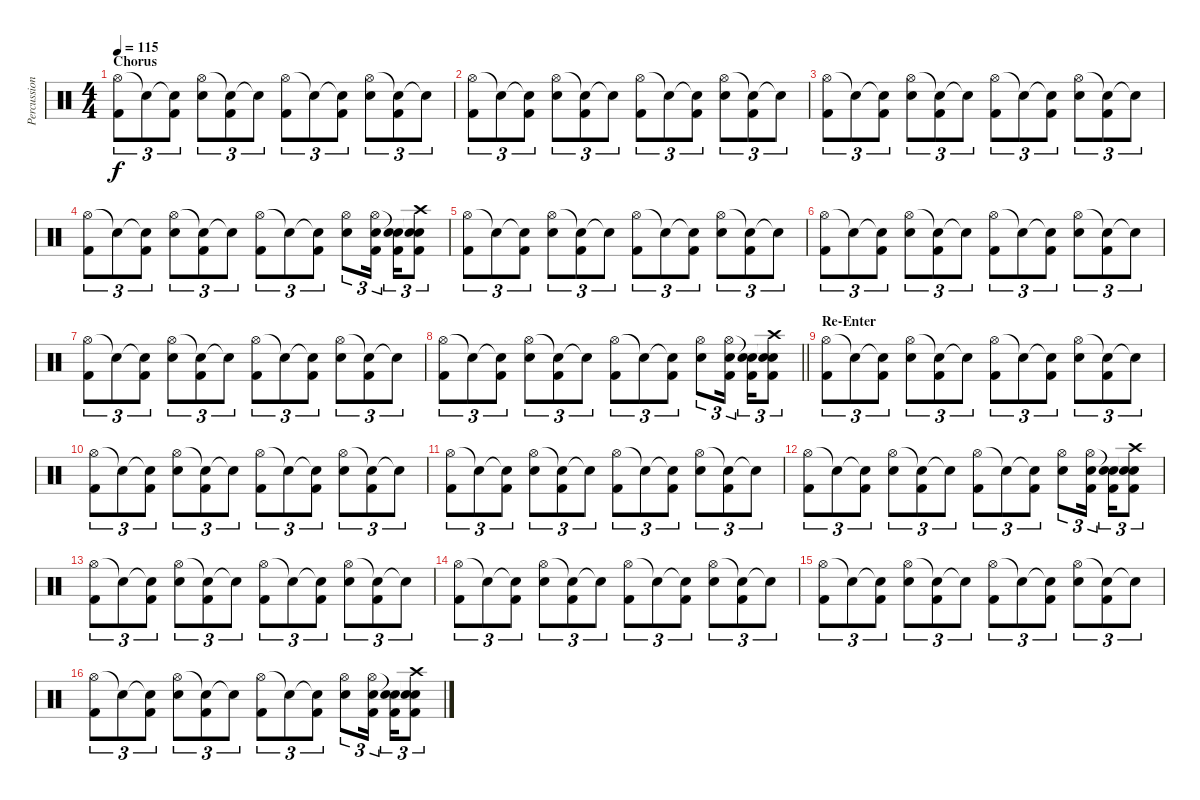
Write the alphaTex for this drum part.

\track ("Percussion" "Percussion") {instrument percussion}
\staff {score}
\articulation defaults
\ts (4 4)
\section ("" "Chorus")
\tempo 115
\clef neutral
\ks c
("Hi-Hat (open)" "Kick (hit) 2").8{tu (3 2) dy f} "Snare (hit)"{t}.8{tu (3 2)} ("Snare (hit)"{t} "Kick (hit) 2").8{tu (3 2)} ("Hi-Hat (open)" "Electric Snare (hit)").8{tu (3 2)} ("Snare (hit)"{t} "Kick (hit) 2").8{tu (3 2)} "Snare (hit)"{t}.8{tu (3 2)} ("Hi-Hat (open)" "Kick (hit) 2").8{tu (3 2)} "Snare (hit)"{t}.8{tu (3 2)} ("Snare (hit)"{t} "Kick (hit) 2").8{tu (3 2)} ("Hi-Hat (open)" "Electric Snare (hit)").8{tu (3 2)} ("Snare (hit)"{t} "Kick (hit) 2").8{tu (3 2)} "Snare (hit)"{t}.8{tu (3 2)} |
("Hi-Hat (open)" "Kick (hit) 2").8{tu (3 2)} "Snare (hit)"{t}.8{tu (3 2)} ("Snare (hit)"{t} "Kick (hit) 2").8{tu (3 2)} ("Hi-Hat (open)" "Electric Snare (hit)").8{tu (3 2)} ("Snare (hit)"{t} "Kick (hit) 2").8{tu (3 2)} "Snare (hit)"{t}.8{tu (3 2)} ("Hi-Hat (open)" "Kick (hit) 2").8{tu (3 2)} "Snare (hit)"{t}.8{tu (3 2)} ("Snare (hit)"{t} "Kick (hit) 2").8{tu (3 2)} ("Hi-Hat (open)" "Electric Snare (hit)").8{tu (3 2)} ("Snare (hit)"{t} "Kick (hit) 2").8{tu (3 2)} "Snare (hit)"{t}.8{tu (3 2)} |
("Hi-Hat (open)" "Kick (hit) 2").8{tu (3 2)} "Snare (hit)"{t}.8{tu (3 2)} ("Snare (hit)"{t} "Kick (hit) 2").8{tu (3 2)} ("Hi-Hat (open)" "Electric Snare (hit)").8{tu (3 2)} ("Snare (hit)"{t} "Kick (hit) 2").8{tu (3 2)} "Snare (hit)"{t}.8{tu (3 2)} ("Hi-Hat (open)" "Kick (hit) 2").8{tu (3 2)} "Snare (hit)"{t}.8{tu (3 2)} ("Snare (hit)"{t} "Kick (hit) 2").8{tu (3 2)} ("Hi-Hat (open)" "Electric Snare (hit)").8{tu (3 2)} ("Snare (hit)"{t} "Kick (hit) 2").8{tu (3 2)} "Snare (hit)"{t}.8{tu (3 2)} |
("Hi-Hat (open)" "Kick (hit) 2").8{tu (3 2)} "Snare (hit)"{t}.8{tu (3 2)} ("Snare (hit)"{t} "Kick (hit) 2").8{tu (3 2)} ("Hi-Hat (open)" "Electric Snare (hit)").8{tu (3 2)} ("Snare (hit)"{t} "Kick (hit) 2").8{tu (3 2)} "Snare (hit)"{t}.8{tu (3 2)} ("Hi-Hat (open)" "Kick (hit) 2").8{tu (3 2)} "Snare (hit)"{t}.8{tu (3 2)} ("Snare (hit)"{t} "Kick (hit) 2").8{tu (3 2)} ("Hi-Hat (open)" "Electric Snare (hit)").8{tu (3 2)} ("Hi-Hat (open)" "Electric Snare (hit)" "Kick (hit) 2").16{tu (3 2) beam splitsecondary} ("Snare (hit)"{t} "Electric Snare (hit)" "Kick (hit) 2").16{tu (3 2)} ("Snare (hit)"{t} "Crash high (hit)" "Electric Snare (hit)" "Kick (hit) 2").8{tu (3 2)} |
("Hi-Hat (open)" "Kick (hit) 2").8{tu (3 2)} "Snare (hit)"{t}.8{tu (3 2)} ("Snare (hit)"{t} "Kick (hit) 2").8{tu (3 2)} ("Hi-Hat (open)" "Electric Snare (hit)").8{tu (3 2)} ("Snare (hit)"{t} "Kick (hit) 2").8{tu (3 2)} "Snare (hit)"{t}.8{tu (3 2)} ("Hi-Hat (open)" "Kick (hit) 2").8{tu (3 2)} "Snare (hit)"{t}.8{tu (3 2)} ("Snare (hit)"{t} "Kick (hit) 2").8{tu (3 2)} ("Hi-Hat (open)" "Electric Snare (hit)").8{tu (3 2)} ("Snare (hit)"{t} "Kick (hit) 2").8{tu (3 2)} "Snare (hit)"{t}.8{tu (3 2)} |
("Hi-Hat (open)" "Kick (hit) 2").8{tu (3 2)} "Snare (hit)"{t}.8{tu (3 2)} ("Snare (hit)"{t} "Kick (hit) 2").8{tu (3 2)} ("Hi-Hat (open)" "Electric Snare (hit)").8{tu (3 2)} ("Snare (hit)"{t} "Kick (hit) 2").8{tu (3 2)} "Snare (hit)"{t}.8{tu (3 2)} ("Hi-Hat (open)" "Kick (hit) 2").8{tu (3 2)} "Snare (hit)"{t}.8{tu (3 2)} ("Snare (hit)"{t} "Kick (hit) 2").8{tu (3 2)} ("Hi-Hat (open)" "Electric Snare (hit)").8{tu (3 2)} ("Snare (hit)"{t} "Kick (hit) 2").8{tu (3 2)} "Snare (hit)"{t}.8{tu (3 2)} |
("Hi-Hat (open)" "Kick (hit) 2").8{tu (3 2)} "Snare (hit)"{t}.8{tu (3 2)} ("Snare (hit)"{t} "Kick (hit) 2").8{tu (3 2)} ("Hi-Hat (open)" "Electric Snare (hit)").8{tu (3 2)} ("Snare (hit)"{t} "Kick (hit) 2").8{tu (3 2)} "Snare (hit)"{t}.8{tu (3 2)} ("Hi-Hat (open)" "Kick (hit) 2").8{tu (3 2)} "Snare (hit)"{t}.8{tu (3 2)} ("Snare (hit)"{t} "Kick (hit) 2").8{tu (3 2)} ("Hi-Hat (open)" "Electric Snare (hit)").8{tu (3 2)} ("Snare (hit)"{t} "Kick (hit) 2").8{tu (3 2)} "Snare (hit)"{t}.8{tu (3 2)} |
\barLineRight lightlight
("Hi-Hat (open)" "Kick (hit) 2").8{tu (3 2)} "Snare (hit)"{t}.8{tu (3 2)} ("Snare (hit)"{t} "Kick (hit) 2").8{tu (3 2)} ("Hi-Hat (open)" "Electric Snare (hit)").8{tu (3 2)} ("Snare (hit)"{t} "Kick (hit) 2").8{tu (3 2)} "Snare (hit)"{t}.8{tu (3 2)} ("Hi-Hat (open)" "Kick (hit) 2").8{tu (3 2)} "Snare (hit)"{t}.8{tu (3 2)} ("Snare (hit)"{t} "Kick (hit) 2").8{tu (3 2)} ("Hi-Hat (open)" "Electric Snare (hit)").8{tu (3 2)} ("Hi-Hat (open)" "Electric Snare (hit)" "Kick (hit) 2").16{tu (3 2) beam splitsecondary} ("Snare (hit)"{t} "Electric Snare (hit)" "Kick (hit) 2").16{tu (3 2)} ("Snare (hit)"{t} "Crash high (hit)" "Electric Snare (hit)" "Kick (hit) 2").8{tu (3 2)} |
\section ("" "Re-Enter")
("Hi-Hat (open)" "Kick (hit) 2").8{tu (3 2)} "Snare (hit)"{t}.8{tu (3 2)} ("Snare (hit)"{t} "Kick (hit) 2").8{tu (3 2)} ("Hi-Hat (open)" "Electric Snare (hit)").8{tu (3 2)} ("Snare (hit)"{t} "Kick (hit) 2").8{tu (3 2)} "Snare (hit)"{t}.8{tu (3 2)} ("Hi-Hat (open)" "Kick (hit) 2").8{tu (3 2)} "Snare (hit)"{t}.8{tu (3 2)} ("Snare (hit)"{t} "Kick (hit) 2").8{tu (3 2)} ("Hi-Hat (open)" "Electric Snare (hit)").8{tu (3 2)} ("Snare (hit)"{t} "Kick (hit) 2").8{tu (3 2)} "Snare (hit)"{t}.8{tu (3 2)} |
("Hi-Hat (open)" "Kick (hit) 2").8{tu (3 2)} "Snare (hit)"{t}.8{tu (3 2)} ("Snare (hit)"{t} "Kick (hit) 2").8{tu (3 2)} ("Hi-Hat (open)" "Electric Snare (hit)").8{tu (3 2)} ("Snare (hit)"{t} "Kick (hit) 2").8{tu (3 2)} "Snare (hit)"{t}.8{tu (3 2)} ("Hi-Hat (open)" "Kick (hit) 2").8{tu (3 2)} "Snare (hit)"{t}.8{tu (3 2)} ("Snare (hit)"{t} "Kick (hit) 2").8{tu (3 2)} ("Hi-Hat (open)" "Electric Snare (hit)").8{tu (3 2)} ("Snare (hit)"{t} "Kick (hit) 2").8{tu (3 2)} "Snare (hit)"{t}.8{tu (3 2)} |
("Hi-Hat (open)" "Kick (hit) 2").8{tu (3 2)} "Snare (hit)"{t}.8{tu (3 2)} ("Snare (hit)"{t} "Kick (hit) 2").8{tu (3 2)} ("Hi-Hat (open)" "Electric Snare (hit)").8{tu (3 2)} ("Snare (hit)"{t} "Kick (hit) 2").8{tu (3 2)} "Snare (hit)"{t}.8{tu (3 2)} ("Hi-Hat (open)" "Kick (hit) 2").8{tu (3 2)} "Snare (hit)"{t}.8{tu (3 2)} ("Snare (hit)"{t} "Kick (hit) 2").8{tu (3 2)} ("Hi-Hat (open)" "Electric Snare (hit)").8{tu (3 2)} ("Snare (hit)"{t} "Kick (hit) 2").8{tu (3 2)} "Snare (hit)"{t}.8{tu (3 2)} |
("Hi-Hat (open)" "Kick (hit) 2").8{tu (3 2)} "Snare (hit)"{t}.8{tu (3 2)} ("Snare (hit)"{t} "Kick (hit) 2").8{tu (3 2)} ("Hi-Hat (open)" "Electric Snare (hit)").8{tu (3 2)} ("Snare (hit)"{t} "Kick (hit) 2").8{tu (3 2)} "Snare (hit)"{t}.8{tu (3 2)} ("Hi-Hat (open)" "Kick (hit) 2").8{tu (3 2)} "Snare (hit)"{t}.8{tu (3 2)} ("Snare (hit)"{t} "Kick (hit) 2").8{tu (3 2)} ("Hi-Hat (open)" "Electric Snare (hit)").8{tu (3 2)} ("Hi-Hat (open)" "Electric Snare (hit)" "Kick (hit) 2").16{tu (3 2) beam splitsecondary} ("Snare (hit)"{t} "Electric Snare (hit)" "Kick (hit) 2").16{tu (3 2)} ("Snare (hit)"{t} "Crash high (hit)" "Electric Snare (hit)" "Kick (hit) 2").8{tu (3 2)} |
("Hi-Hat (open)" "Kick (hit) 2").8{tu (3 2)} "Snare (hit)"{t}.8{tu (3 2)} ("Snare (hit)"{t} "Kick (hit) 2").8{tu (3 2)} ("Hi-Hat (open)" "Electric Snare (hit)").8{tu (3 2)} ("Snare (hit)"{t} "Kick (hit) 2").8{tu (3 2)} "Snare (hit)"{t}.8{tu (3 2)} ("Hi-Hat (open)" "Kick (hit) 2").8{tu (3 2)} "Snare (hit)"{t}.8{tu (3 2)} ("Snare (hit)"{t} "Kick (hit) 2").8{tu (3 2)} ("Hi-Hat (open)" "Electric Snare (hit)").8{tu (3 2)} ("Snare (hit)"{t} "Kick (hit) 2").8{tu (3 2)} "Snare (hit)"{t}.8{tu (3 2)} |
("Hi-Hat (open)" "Kick (hit) 2").8{tu (3 2)} "Snare (hit)"{t}.8{tu (3 2)} ("Snare (hit)"{t} "Kick (hit) 2").8{tu (3 2)} ("Hi-Hat (open)" "Electric Snare (hit)").8{tu (3 2)} ("Snare (hit)"{t} "Kick (hit) 2").8{tu (3 2)} "Snare (hit)"{t}.8{tu (3 2)} ("Hi-Hat (open)" "Kick (hit) 2").8{tu (3 2)} "Snare (hit)"{t}.8{tu (3 2)} ("Snare (hit)"{t} "Kick (hit) 2").8{tu (3 2)} ("Hi-Hat (open)" "Electric Snare (hit)").8{tu (3 2)} ("Snare (hit)"{t} "Kick (hit) 2").8{tu (3 2)} "Snare (hit)"{t}.8{tu (3 2)} |
("Hi-Hat (open)" "Kick (hit) 2").8{tu (3 2)} "Snare (hit)"{t}.8{tu (3 2)} ("Snare (hit)"{t} "Kick (hit) 2").8{tu (3 2)} ("Hi-Hat (open)" "Electric Snare (hit)").8{tu (3 2)} ("Snare (hit)"{t} "Kick (hit) 2").8{tu (3 2)} "Snare (hit)"{t}.8{tu (3 2)} ("Hi-Hat (open)" "Kick (hit) 2").8{tu (3 2)} "Snare (hit)"{t}.8{tu (3 2)} ("Snare (hit)"{t} "Kick (hit) 2").8{tu (3 2)} ("Hi-Hat (open)" "Electric Snare (hit)").8{tu (3 2)} ("Snare (hit)"{t} "Kick (hit) 2").8{tu (3 2)} "Snare (hit)"{t}.8{tu (3 2)} |
("Hi-Hat (open)" "Kick (hit) 2").8{tu (3 2)} "Snare (hit)"{t}.8{tu (3 2)} ("Snare (hit)"{t} "Kick (hit) 2").8{tu (3 2)} ("Hi-Hat (open)" "Electric Snare (hit)").8{tu (3 2)} ("Snare (hit)"{t} "Kick (hit) 2").8{tu (3 2)} "Snare (hit)"{t}.8{tu (3 2)} ("Hi-Hat (open)" "Kick (hit) 2").8{tu (3 2)} "Snare (hit)"{t}.8{tu (3 2)} ("Snare (hit)"{t} "Kick (hit) 2").8{tu (3 2)} ("Hi-Hat (open)" "Electric Snare (hit)").8{tu (3 2)} ("Hi-Hat (open)" "Electric Snare (hit)" "Kick (hit) 2").16{tu (3 2) beam splitsecondary} ("Snare (hit)"{t} "Electric Snare (hit)" "Kick (hit) 2").16{tu (3 2)} ("Snare (hit)"{t} "Crash high (hit)" "Electric Snare (hit)" "Kick (hit) 2").8{tu (3 2)}
